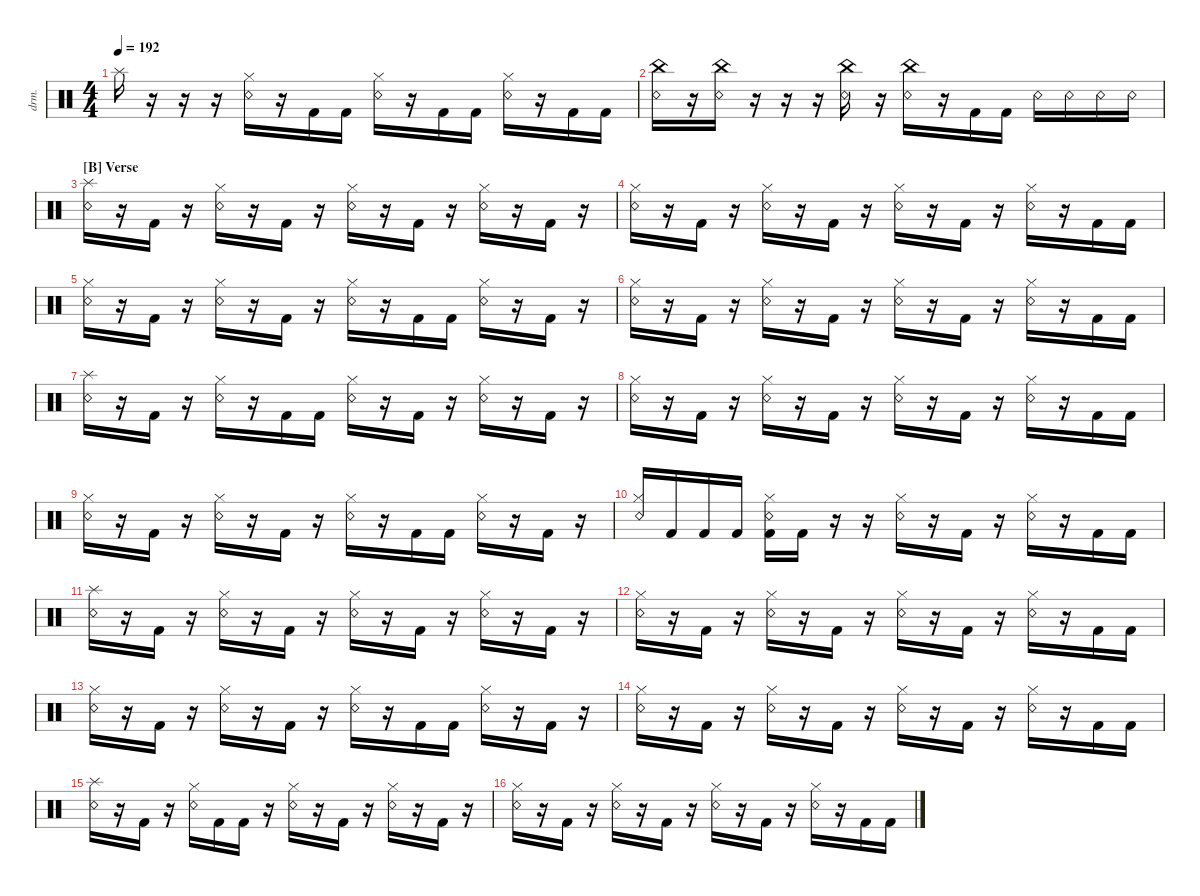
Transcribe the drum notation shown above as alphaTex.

\defaultSystemsLayout 4
\hideDynamics
\bracketExtendMode nobrackets
\otherSystemsTrackNameOrientation horizontal
\track ("Drumkit" "drm.") {instrument percussion}
\staff {score}
\articulation defaults
\ts (4 4)
\tempo 192
\clef neutral
\ks c "Splash (hit)".16{dy ff beam Down}
r.16{beam Down} r.16{beam Down} r.16{beam Down} ("Hi-Hat (closed)" "Snare (rim shot)").16{beam Down} r.16{beam Down} "Kick (hit) 2".16{beam Down} "Kick (hit) 2".16{beam Down} ("Hi-Hat (closed)" "Snare (rim shot)").16{beam Down} r.16{beam Down} "Kick (hit) 2".16{beam Down} "Kick (hit) 2".16{beam Down} ("Hi-Hat (closed)" "Snare (rim shot)").16{beam Down} r.16{beam Down} "Kick (hit) 2".16{beam Down} "Kick (hit) 2".16{beam Down} |
("Snare (rim shot)" "China (hit)").16{beam Down} r.16{beam Down} ("China (hit)" "Snare (rim shot)").16{beam Down} r.16{beam Down} r.16{beam Down} r.16{beam Down} ("Snare (rim shot)" "China (hit)").16{beam Down} r.16{beam Down} ("Snare (rim shot)" "China (hit)").16{beam Down} r.16{beam Down} "Kick (hit) 2".16{beam Down} "Kick (hit) 2".16{beam Down} "Snare (rim shot)".16{beam Down} "Snare (rim shot)".16{beam Down} "Snare (rim shot)".16{beam Down} "Snare (rim shot)".16{beam Down} |
\section ("B" "Verse")
("Snare (rim shot)" "Splash (hit)").16{beam Down} r.16{beam Down} "Kick (hit) 2".16{beam Down} r.16{beam Down} ("Snare (rim shot)" "Hi-Hat (closed)").16{beam Down} r.16{beam Down} "Kick (hit) 2".16{beam Down} r.16{beam Down} ("Snare (rim shot)" "Hi-Hat (closed)").16{beam Down} r.16{beam Down} "Kick (hit) 2".16{beam Down} r.16{beam Down} ("Snare (rim shot)" "Hi-Hat (closed)").16{beam Down} r.16{beam Down} "Kick (hit) 2".16{beam Down} r.16{beam Down} |
("Snare (rim shot)" "Hi-Hat (closed)").16{beam Down} r.16{beam Down} "Kick (hit) 2".16{beam Down} r.16{beam Down} ("Snare (rim shot)" "Hi-Hat (closed)").16{beam Down} r.16{beam Down} "Kick (hit) 2".16{beam Down} r.16{beam Down} ("Snare (rim shot)" "Hi-Hat (closed)").16{beam Down} r.16{beam Down} "Kick (hit) 2".16{beam Down} r.16{beam Down} ("Snare (rim shot)" "Hi-Hat (closed)").16{beam Down} r.16{beam Down} "Kick (hit) 2".16{beam Down} "Kick (hit) 2".16{beam Down} |
("Snare (rim shot)" "Hi-Hat (closed)").16{beam Down} r.16{beam Down} "Kick (hit) 2".16{beam Down} r.16{beam Down} ("Snare (rim shot)" "Hi-Hat (closed)").16{beam Down} r.16{beam Down} "Kick (hit) 2".16{beam Down} r.16{beam Down} ("Snare (rim shot)" "Hi-Hat (closed)").16{beam Down} r.16{beam Down} "Kick (hit) 2".16{beam Down} "Kick (hit) 2".16{beam Down} ("Snare (rim shot)" "Hi-Hat (closed)").16{beam Down} r.16{beam Down} "Kick (hit) 2".16{beam Down} r.16{beam Down} |
("Snare (rim shot)" "Hi-Hat (closed)").16{beam Down} r.16{beam Down} "Kick (hit) 2".16{beam Down} r.16{beam Down} ("Snare (rim shot)" "Hi-Hat (closed)").16{beam Down} r.16{beam Down} "Kick (hit) 2".16{beam Down} r.16{beam Down} ("Snare (rim shot)" "Hi-Hat (closed)").16{beam Down} r.16{beam Down} "Kick (hit) 2".16{beam Down} r.16{beam Down} ("Snare (rim shot)" "Hi-Hat (closed)").16{beam Down} r.16{beam Down} "Kick (hit) 2".16{beam Down} "Kick (hit) 2".16{beam Down} |
("Snare (rim shot)" "Splash (hit)").16{beam Down} r.16{beam Down} "Kick (hit) 2".16{beam Down} r.16{beam Down} ("Snare (rim shot)" "Hi-Hat (closed)").16{beam Down} r.16{beam Down} "Kick (hit) 2".16{beam Down} "Kick (hit) 2".16{beam Down} ("Snare (rim shot)" "Hi-Hat (closed)").16{beam Down} r.16{beam Down} "Kick (hit) 2".16{beam Down} r.16{beam Down} ("Snare (rim shot)" "Hi-Hat (closed)").16{beam Down} r.16{beam Down} "Kick (hit) 2".16{beam Down} r.16{beam Down} |
("Snare (rim shot)" "Hi-Hat (closed)").16{beam Down} r.16{beam Down} "Kick (hit) 2".16{beam Down} r.16{beam Down} ("Snare (rim shot)" "Hi-Hat (closed)").16{beam Down} r.16{beam Down} "Kick (hit) 2".16{beam Down} r.16{beam Down} ("Snare (rim shot)" "Hi-Hat (closed)").16{beam Down} r.16{beam Down} "Kick (hit) 2".16{beam Down} r.16{beam Down} ("Snare (rim shot)" "Hi-Hat (closed)").16{beam Down} r.16{beam Down} "Kick (hit) 2".16{beam Down} "Kick (hit) 2".16{beam Down} |
("Snare (rim shot)" "Hi-Hat (closed)").16{beam Down} r.16{beam Down} "Kick (hit) 2".16{beam Down} r.16{beam Down} ("Snare (rim shot)" "Hi-Hat (closed)").16{beam Down} r.16{beam Down} "Kick (hit) 2".16{beam Down} r.16{beam Down} ("Snare (rim shot)" "Hi-Hat (closed)").16{beam Down} r.16{beam Down} "Kick (hit) 2".16{beam Down} "Kick (hit) 2".16{beam Down} ("Snare (rim shot)" "Hi-Hat (closed)").16{beam Down} r.16{beam Down} "Kick (hit) 2".16{beam Down} r.16{beam Down} |
("Snare (rim shot)" "Hi-Hat (closed)").16{beam Up} "Kick (hit) 2".16{beam Up} "Kick (hit) 2".16{beam Up} "Kick (hit) 2".16{beam Up} ("Hi-Hat (closed)" "Kick (hit) 2" "Snare (rim shot)").16{beam Down} "Kick (hit) 2".16{beam Down} r.16{beam Down} r.16{beam Down} ("Snare (rim shot)" "Hi-Hat (closed)").16{beam Down} r.16{beam Down} "Kick (hit) 2".16{beam Down} r.16{beam Down} ("Snare (rim shot)" "Hi-Hat (closed)").16{beam Down} r.16{beam Down} "Kick (hit) 2".16{beam Down} "Kick (hit) 2".16{beam Down} |
("Snare (rim shot)" "Splash (hit)").16{beam Down} r.16{beam Down} "Kick (hit) 2".16{beam Down} r.16{beam Down} ("Snare (rim shot)" "Hi-Hat (closed)").16{beam Down} r.16{beam Down} "Kick (hit) 2".16{beam Down} r.16{beam Down} ("Snare (rim shot)" "Hi-Hat (closed)").16{beam Down} r.16{beam Down} "Kick (hit) 2".16{beam Down} r.16{beam Down} ("Snare (rim shot)" "Hi-Hat (closed)").16{beam Down} r.16{beam Down} "Kick (hit) 2".16{beam Down} r.16{beam Down} |
("Snare (rim shot)" "Hi-Hat (closed)").16{beam Down} r.16{beam Down} "Kick (hit) 2".16{beam Down} r.16{beam Down} ("Snare (rim shot)" "Hi-Hat (closed)").16{beam Down} r.16{beam Down} "Kick (hit) 2".16{beam Down} r.16{beam Down} ("Snare (rim shot)" "Hi-Hat (closed)").16{beam Down} r.16{beam Down} "Kick (hit) 2".16{beam Down} r.16{beam Down} ("Snare (rim shot)" "Hi-Hat (closed)").16{beam Down} r.16{beam Down} "Kick (hit) 2".16{beam Down} "Kick (hit) 2".16{beam Down} |
("Snare (rim shot)" "Hi-Hat (closed)").16{beam Down} r.16{beam Down} "Kick (hit) 2".16{beam Down} r.16{beam Down} ("Snare (rim shot)" "Hi-Hat (closed)").16{beam Down} r.16{beam Down} "Kick (hit) 2".16{beam Down} r.16{beam Down} ("Snare (rim shot)" "Hi-Hat (closed)").16{beam Down} r.16{beam Down} "Kick (hit) 2".16{beam Down} "Kick (hit) 2".16{beam Down} ("Snare (rim shot)" "Hi-Hat (closed)").16{beam Down} r.16{beam Down} "Kick (hit) 2".16{beam Down} r.16{beam Down} |
("Snare (rim shot)" "Hi-Hat (closed)").16{beam Down} r.16{beam Down} "Kick (hit) 2".16{beam Down} r.16{beam Down} ("Snare (rim shot)" "Hi-Hat (closed)").16{beam Down} r.16{beam Down} "Kick (hit) 2".16{beam Down} r.16{beam Down} ("Snare (rim shot)" "Hi-Hat (closed)").16{beam Down} r.16{beam Down} "Kick (hit) 2".16{beam Down} r.16{beam Down} ("Snare (rim shot)" "Hi-Hat (closed)").16{beam Down} r.16{beam Down} "Kick (hit) 2".16{beam Down} "Kick (hit) 2".16{beam Down} |
("Snare (rim shot)" "Splash (hit)").16{beam Down} r.16{beam Down} "Kick (hit) 2".16{beam Down} r.16{beam Down} ("Snare (rim shot)" "Hi-Hat (closed)").16{beam Down} "Kick (hit) 2".16{beam Down} "Kick (hit) 2".16{beam Down} r.16{beam Down} ("Snare (rim shot)" "Hi-Hat (closed)").16{beam Down} r.16{beam Down} "Kick (hit) 2".16{beam Down} r.16{beam Down} ("Snare (rim shot)" "Hi-Hat (closed)").16{beam Down} r.16{beam Down} "Kick (hit) 2".16{beam Down} r.16{beam Down} |
("Snare (rim shot)" "Hi-Hat (closed)").16{beam Down} r.16{beam Down} "Kick (hit) 2".16{beam Down} r.16{beam Down} ("Snare (rim shot)" "Hi-Hat (closed)").16{beam Down} r.16{beam Down} "Kick (hit) 2".16{beam Down} r.16{beam Down} ("Snare (rim shot)" "Hi-Hat (closed)").16{beam Down} r.16{beam Down} "Kick (hit) 2".16{beam Down} r.16{beam Down} ("Snare (rim shot)" "Hi-Hat (closed)").16{beam Down} r.16{beam Down} "Kick (hit) 2".16{beam Down} "Kick (hit) 2".16{beam Down}
